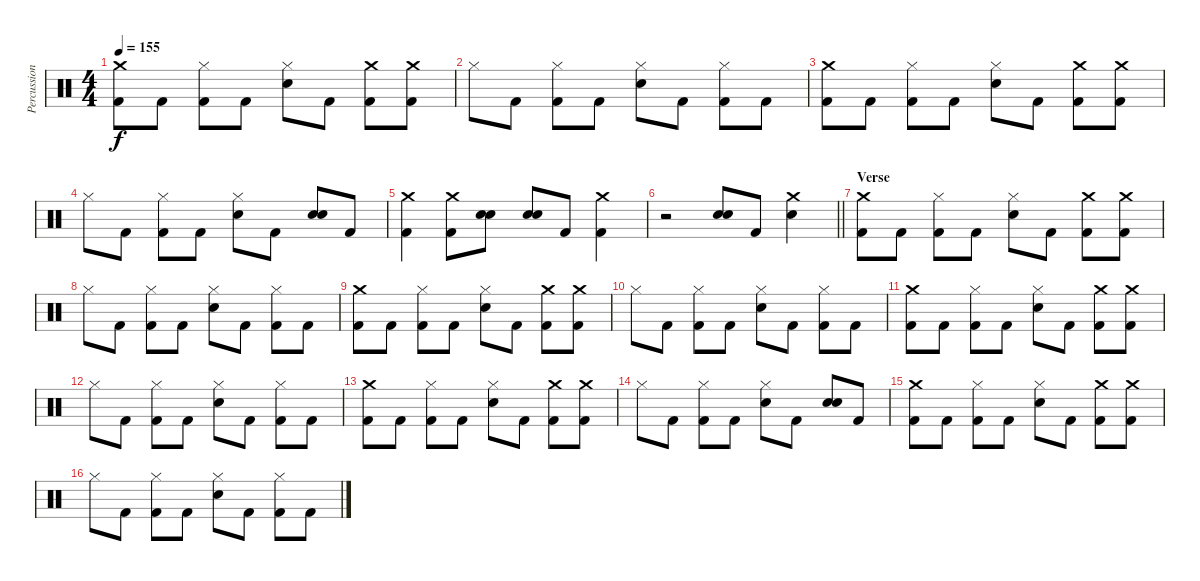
\track ("Percussion" "Percussion") {instrument percussion}
\staff {score}
\articulation defaults
\ts (4 4)
\tempo 155
\clef neutral
\ks c
("Crash medium (hit)" "Kick (hit) 2").8{dy f} "Kick (hit) 2".8 ("Hi-Hat (closed)" "Kick (hit) 2").8 "Kick (hit) 2".8 ("Hi-Hat (closed)" "Electric Snare (hit)").8 "Kick (hit) 2".8 ("Crash medium (hit)" "Kick (hit) 2").8 ("Crash medium (hit)" "Kick (hit) 2").8 |
"Hi-Hat (closed)".8 "Kick (hit) 2".8 ("Hi-Hat (closed)" "Kick (hit) 2").8 "Kick (hit) 2".8 ("Hi-Hat (closed)" "Electric Snare (hit)").8 "Kick (hit) 2".8 ("Hi-Hat (closed)" "Kick (hit) 2").8 "Kick (hit) 2".8 |
("Crash medium (hit)" "Kick (hit) 2").8 "Kick (hit) 2".8 ("Hi-Hat (closed)" "Kick (hit) 2").8 "Kick (hit) 2".8 ("Hi-Hat (closed)" "Electric Snare (hit)").8 "Kick (hit) 2".8 ("Crash medium (hit)" "Kick (hit) 2").8 ("Crash medium (hit)" "Kick (hit) 2").8 |
"Hi-Hat (closed)".8 "Kick (hit) 2".8 ("Hi-Hat (closed)" "Kick (hit) 2").8 "Kick (hit) 2".8 ("Hi-Hat (closed)" "Electric Snare (hit)").8 "Kick (hit) 2".8 ("Snare (hit) 2" "Electric Snare (hit)").8 "Kick (hit) 2".8 |
("Crash medium (hit)" "Kick (hit) 2").4 ("Crash medium (hit)" "Kick (hit) 2").8 ("Snare (hit) 2" "Electric Snare (hit)").8 ("Snare (hit) 2" "Electric Snare (hit)").8 "Kick (hit) 2".8 ("Crash medium (hit)" "Kick (hit) 2").4 |
\barLineRight lightlight
r.2 ("Snare (hit) 2" "Electric Snare (hit)").8 "Kick (hit) 2".8 ("Crash medium (hit)" "Electric Snare (hit)").4 |
\section ("" "Verse")
("Crash medium (hit)" "Kick (hit) 2").8 "Kick (hit) 2".8 ("Hi-Hat (closed)" "Kick (hit) 2").8 "Kick (hit) 2".8 ("Hi-Hat (closed)" "Electric Snare (hit)").8 "Kick (hit) 2".8 ("Crash medium (hit)" "Kick (hit) 2").8 ("Crash medium (hit)" "Kick (hit) 2").8 |
"Hi-Hat (closed)".8 "Kick (hit) 2".8 ("Hi-Hat (closed)" "Kick (hit) 2").8 "Kick (hit) 2".8 ("Hi-Hat (closed)" "Electric Snare (hit)").8 "Kick (hit) 2".8 ("Hi-Hat (closed)" "Kick (hit) 2").8 "Kick (hit) 2".8 |
("Crash medium (hit)" "Kick (hit) 2").8 "Kick (hit) 2".8 ("Hi-Hat (closed)" "Kick (hit) 2").8 "Kick (hit) 2".8 ("Hi-Hat (closed)" "Electric Snare (hit)").8 "Kick (hit) 2".8 ("Crash medium (hit)" "Kick (hit) 2").8 ("Crash medium (hit)" "Kick (hit) 2").8 |
"Hi-Hat (closed)".8 "Kick (hit) 2".8 ("Hi-Hat (closed)" "Kick (hit) 2").8 "Kick (hit) 2".8 ("Hi-Hat (closed)" "Electric Snare (hit)").8 "Kick (hit) 2".8 ("Hi-Hat (closed)" "Kick (hit) 2").8 "Kick (hit) 2".8 |
("Crash medium (hit)" "Kick (hit) 2").8 "Kick (hit) 2".8 ("Hi-Hat (closed)" "Kick (hit) 2").8 "Kick (hit) 2".8 ("Hi-Hat (closed)" "Electric Snare (hit)").8 "Kick (hit) 2".8 ("Crash medium (hit)" "Kick (hit) 2").8 ("Crash medium (hit)" "Kick (hit) 2").8 |
"Hi-Hat (closed)".8 "Kick (hit) 2".8 ("Hi-Hat (closed)" "Kick (hit) 2").8 "Kick (hit) 2".8 ("Hi-Hat (closed)" "Electric Snare (hit)").8 "Kick (hit) 2".8 ("Hi-Hat (closed)" "Kick (hit) 2").8 "Kick (hit) 2".8 |
("Crash medium (hit)" "Kick (hit) 2").8 "Kick (hit) 2".8 ("Hi-Hat (closed)" "Kick (hit) 2").8 "Kick (hit) 2".8 ("Hi-Hat (closed)" "Electric Snare (hit)").8 "Kick (hit) 2".8 ("Crash medium (hit)" "Kick (hit) 2").8 ("Crash medium (hit)" "Kick (hit) 2").8 |
"Hi-Hat (closed)".8 "Kick (hit) 2".8 ("Hi-Hat (closed)" "Kick (hit) 2").8 "Kick (hit) 2".8 ("Hi-Hat (closed)" "Electric Snare (hit)").8 "Kick (hit) 2".8 ("Snare (hit) 2" "Electric Snare (hit)").8 "Kick (hit) 2".8 |
("Crash medium (hit)" "Kick (hit) 2").8 "Kick (hit) 2".8 ("Hi-Hat (closed)" "Kick (hit) 2").8 "Kick (hit) 2".8 ("Hi-Hat (closed)" "Electric Snare (hit)").8 "Kick (hit) 2".8 ("Crash medium (hit)" "Kick (hit) 2").8 ("Crash medium (hit)" "Kick (hit) 2").8 |
"Hi-Hat (closed)".8 "Kick (hit) 2".8 ("Hi-Hat (closed)" "Kick (hit) 2").8 "Kick (hit) 2".8 ("Hi-Hat (closed)" "Electric Snare (hit)").8 "Kick (hit) 2".8 ("Hi-Hat (closed)" "Kick (hit) 2").8 "Kick (hit) 2".8
